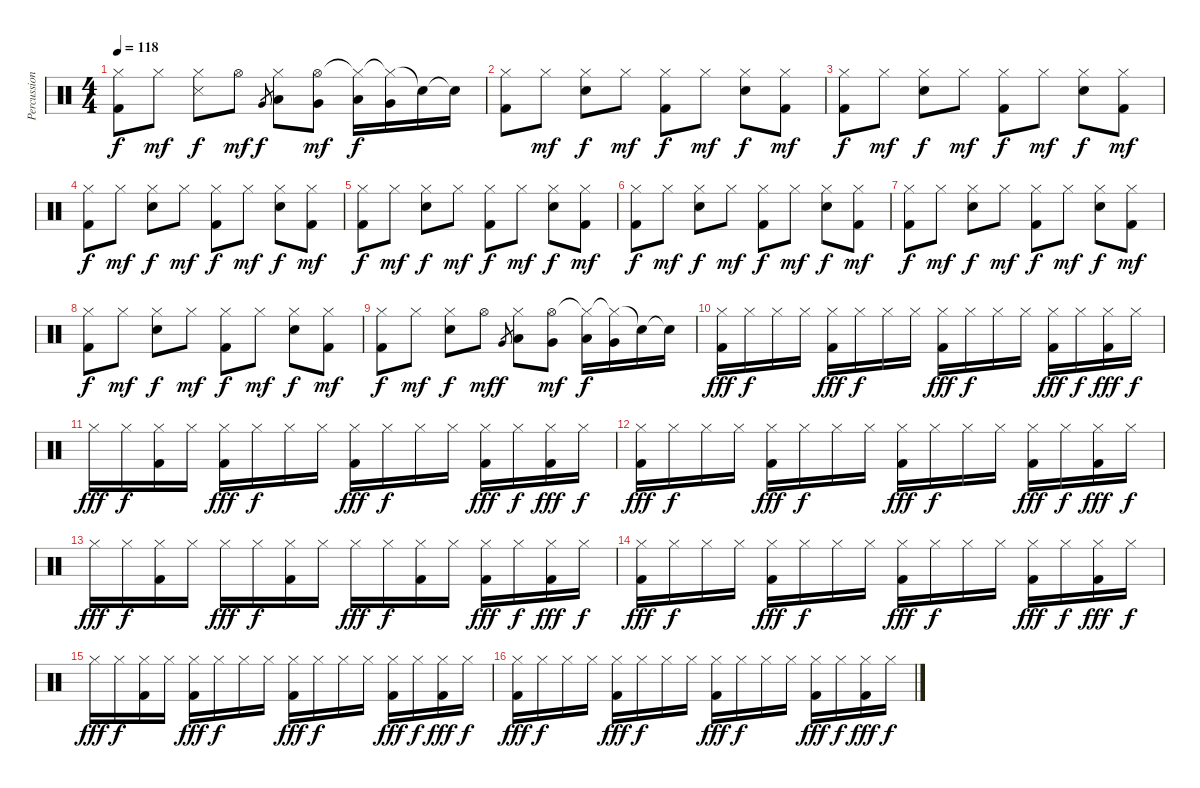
\track ("Percussion" "Percussion") {instrument percussion}
\staff {score}
\articulation defaults
\ts (4 4)
\tempo 118
\clef neutral
\ks c
("Hi-Hat (closed)" "Kick (hit) 2").8{dy f} "Hi-Hat (closed)".8{dy mf} ("Hi-Hat (closed)" "Snare (side stick) 3").8{dy f} "Hi-Hat (open)".8{dy mf} "Very Low Tom (hit)".8{gr dy f} ("Hi-Hat (closed)" "Low Tom (hit)").8 ("Hi-Hat (open)" "Very Low Tom (hit)").8{dy mf} ("Hi-Hat (closed)"{t} "Low Tom (hit)").16{dy f} ("Hi-Hat (closed)"{t} "Very Low Tom (hit)").16 "Snare (hit)"{t}.16 "Snare (hit)"{t}.16 |
("Hi-Hat (closed)" "Kick (hit) 2").8 "Hi-Hat (closed)".8{dy mf} ("Hi-Hat (closed)" "Electric Snare (hit)").8{dy f} "Hi-Hat (closed)".8{dy mf} ("Hi-Hat (closed)" "Kick (hit) 2").8{dy f} "Hi-Hat (closed)".8{dy mf} ("Hi-Hat (closed)" "Electric Snare (hit)").8{dy f} ("Hi-Hat (closed)" "Kick (hit) 2").8{dy mf} |
("Hi-Hat (closed)" "Kick (hit) 2").8{dy f} "Hi-Hat (closed)".8{dy mf} ("Hi-Hat (closed)" "Electric Snare (hit)").8{dy f} "Hi-Hat (closed)".8{dy mf} ("Hi-Hat (closed)" "Kick (hit) 2").8{dy f} "Hi-Hat (closed)".8{dy mf} ("Hi-Hat (closed)" "Electric Snare (hit)").8{dy f} ("Hi-Hat (closed)" "Kick (hit) 2").8{dy mf} |
("Hi-Hat (closed)" "Kick (hit) 2").8{dy f} "Hi-Hat (closed)".8{dy mf} ("Hi-Hat (closed)" "Electric Snare (hit)").8{dy f} "Hi-Hat (closed)".8{dy mf} ("Hi-Hat (closed)" "Kick (hit) 2").8{dy f} "Hi-Hat (closed)".8{dy mf} ("Hi-Hat (closed)" "Electric Snare (hit)").8{dy f} ("Hi-Hat (closed)" "Kick (hit) 2").8{dy mf} |
("Hi-Hat (closed)" "Kick (hit) 2").8{dy f} "Hi-Hat (closed)".8{dy mf} ("Hi-Hat (closed)" "Electric Snare (hit)").8{dy f} "Hi-Hat (closed)".8{dy mf} ("Hi-Hat (closed)" "Kick (hit) 2").8{dy f} "Hi-Hat (closed)".8{dy mf} ("Hi-Hat (closed)" "Electric Snare (hit)").8{dy f} ("Hi-Hat (closed)" "Kick (hit) 2").8{dy mf} |
("Hi-Hat (closed)" "Kick (hit) 2").8{dy f} "Hi-Hat (closed)".8{dy mf} ("Hi-Hat (closed)" "Electric Snare (hit)").8{dy f} "Hi-Hat (closed)".8{dy mf} ("Hi-Hat (closed)" "Kick (hit) 2").8{dy f} "Hi-Hat (closed)".8{dy mf} ("Hi-Hat (closed)" "Electric Snare (hit)").8{dy f} ("Hi-Hat (closed)" "Kick (hit) 2").8{dy mf} |
("Hi-Hat (closed)" "Kick (hit) 2").8{dy f} "Hi-Hat (closed)".8{dy mf} ("Hi-Hat (closed)" "Electric Snare (hit)").8{dy f} "Hi-Hat (closed)".8{dy mf} ("Hi-Hat (closed)" "Kick (hit) 2").8{dy f} "Hi-Hat (closed)".8{dy mf} ("Hi-Hat (closed)" "Electric Snare (hit)").8{dy f} ("Hi-Hat (closed)" "Kick (hit) 2").8{dy mf} |
("Hi-Hat (closed)" "Kick (hit) 2").8{dy f} "Hi-Hat (closed)".8{dy mf} ("Hi-Hat (closed)" "Electric Snare (hit)").8{dy f} "Hi-Hat (closed)".8{dy mf} ("Hi-Hat (closed)" "Kick (hit) 2").8{dy f} "Hi-Hat (closed)".8{dy mf} ("Hi-Hat (closed)" "Electric Snare (hit)").8{dy f} ("Hi-Hat (closed)" "Kick (hit) 2").8{dy mf} |
("Hi-Hat (closed)" "Kick (hit) 2").8{dy f} "Hi-Hat (closed)".8{dy mf} ("Hi-Hat (closed)" "Electric Snare (hit)").8{dy f} "Hi-Hat (open)".8{dy mf} "Very Low Tom (hit)".8{gr dy f} ("Hi-Hat (closed)" "Low Tom (hit)").8 ("Hi-Hat (open)" "Very Low Tom (hit)").8{dy mf} ("Hi-Hat (closed)"{t} "Low Tom (hit)").16{dy f} ("Hi-Hat (closed)"{t} "Very Low Tom (hit)").16 "Snare (hit)"{t}.16 "Snare (hit)"{t}.16 |
("Hi-Hat (closed)" "Kick (hit) 2").16{dy fff} "Hi-Hat (closed)".16{dy f} "Hi-Hat (closed)".16 "Hi-Hat (closed)".16 ("Hi-Hat (closed)" "Kick (hit) 2").16{dy fff} "Hi-Hat (closed)".16{dy f} "Hi-Hat (closed)".16 "Hi-Hat (closed)".16 ("Hi-Hat (closed)" "Kick (hit) 2").16{dy fff} "Hi-Hat (closed)".16{dy f} "Hi-Hat (closed)".16 "Hi-Hat (closed)".16 ("Hi-Hat (closed)" "Kick (hit) 2").16{dy fff} "Hi-Hat (closed)".16{dy f} ("Hi-Hat (closed)" "Kick (hit) 2").16{dy fff} "Hi-Hat (closed)".16{dy f} |
"Hi-Hat (closed)".16{dy fff} "Hi-Hat (closed)".16{dy f} ("Hi-Hat (closed)" "Kick (hit) 2").16 "Hi-Hat (closed)".16 ("Hi-Hat (closed)" "Kick (hit) 2").16{dy fff} "Hi-Hat (closed)".16{dy f} "Hi-Hat (closed)".16 "Hi-Hat (closed)".16 ("Hi-Hat (closed)" "Kick (hit) 2").16{dy fff} "Hi-Hat (closed)".16{dy f} "Hi-Hat (closed)".16 "Hi-Hat (closed)".16 ("Hi-Hat (closed)" "Kick (hit) 2").16{dy fff} "Hi-Hat (closed)".16{dy f} ("Hi-Hat (closed)" "Kick (hit) 2").16{dy fff} "Hi-Hat (closed)".16{dy f} |
("Hi-Hat (closed)" "Kick (hit) 2").16{dy fff} "Hi-Hat (closed)".16{dy f} "Hi-Hat (closed)".16 "Hi-Hat (closed)".16 ("Hi-Hat (closed)" "Kick (hit) 2").16{dy fff} "Hi-Hat (closed)".16{dy f} "Hi-Hat (closed)".16 "Hi-Hat (closed)".16 ("Hi-Hat (closed)" "Kick (hit) 2").16{dy fff} "Hi-Hat (closed)".16{dy f} "Hi-Hat (closed)".16 "Hi-Hat (closed)".16 ("Hi-Hat (closed)" "Kick (hit) 2").16{dy fff} "Hi-Hat (closed)".16{dy f} ("Hi-Hat (closed)" "Kick (hit) 2").16{dy fff} "Hi-Hat (closed)".16{dy f} |
"Hi-Hat (closed)".16{dy fff} "Hi-Hat (closed)".16{dy f} ("Hi-Hat (closed)" "Kick (hit) 2").16 "Hi-Hat (closed)".16 "Hi-Hat (closed)".16{dy fff} "Hi-Hat (closed)".16{dy f} ("Hi-Hat (closed)" "Kick (hit) 2").16 "Hi-Hat (closed)".16 "Hi-Hat (closed)".16{dy fff} "Hi-Hat (closed)".16{dy f} ("Hi-Hat (closed)" "Kick (hit) 2").16 "Hi-Hat (closed)".16 ("Hi-Hat (closed)" "Kick (hit) 2").16{dy fff} "Hi-Hat (closed)".16{dy f} ("Hi-Hat (closed)" "Kick (hit) 2").16{dy fff} "Hi-Hat (closed)".16{dy f} |
("Hi-Hat (closed)" "Kick (hit) 2").16{dy fff} "Hi-Hat (closed)".16{dy f} "Hi-Hat (closed)".16 "Hi-Hat (closed)".16 ("Hi-Hat (closed)" "Kick (hit) 2").16{dy fff} "Hi-Hat (closed)".16{dy f} "Hi-Hat (closed)".16 "Hi-Hat (closed)".16 ("Hi-Hat (closed)" "Kick (hit) 2").16{dy fff} "Hi-Hat (closed)".16{dy f} "Hi-Hat (closed)".16 "Hi-Hat (closed)".16 ("Hi-Hat (closed)" "Kick (hit) 2").16{dy fff} "Hi-Hat (closed)".16{dy f} ("Hi-Hat (closed)" "Kick (hit) 2").16{dy fff} "Hi-Hat (closed)".16{dy f} |
"Hi-Hat (closed)".16{dy fff} "Hi-Hat (closed)".16{dy f} ("Hi-Hat (closed)" "Kick (hit) 2").16 "Hi-Hat (closed)".16 ("Hi-Hat (closed)" "Kick (hit) 2").16{dy fff} "Hi-Hat (closed)".16{dy f} "Hi-Hat (closed)".16 "Hi-Hat (closed)".16 ("Hi-Hat (closed)" "Kick (hit) 2").16{dy fff} "Hi-Hat (closed)".16{dy f} "Hi-Hat (closed)".16 "Hi-Hat (closed)".16 ("Hi-Hat (closed)" "Kick (hit) 2").16{dy fff} "Hi-Hat (closed)".16{dy f} ("Hi-Hat (closed)" "Kick (hit) 2").16{dy fff} "Hi-Hat (closed)".16{dy f} |
("Hi-Hat (closed)" "Kick (hit) 2").16{dy fff} "Hi-Hat (closed)".16{dy f} "Hi-Hat (closed)".16 "Hi-Hat (closed)".16 ("Hi-Hat (closed)" "Kick (hit) 2").16{dy fff} "Hi-Hat (closed)".16{dy f} "Hi-Hat (closed)".16 "Hi-Hat (closed)".16 ("Hi-Hat (closed)" "Kick (hit) 2").16{dy fff} "Hi-Hat (closed)".16{dy f} "Hi-Hat (closed)".16 "Hi-Hat (closed)".16 ("Hi-Hat (closed)" "Kick (hit) 2").16{dy fff} "Hi-Hat (closed)".16{dy f} ("Hi-Hat (closed)" "Kick (hit) 2").16{dy fff} "Hi-Hat (closed)".16{dy f}
